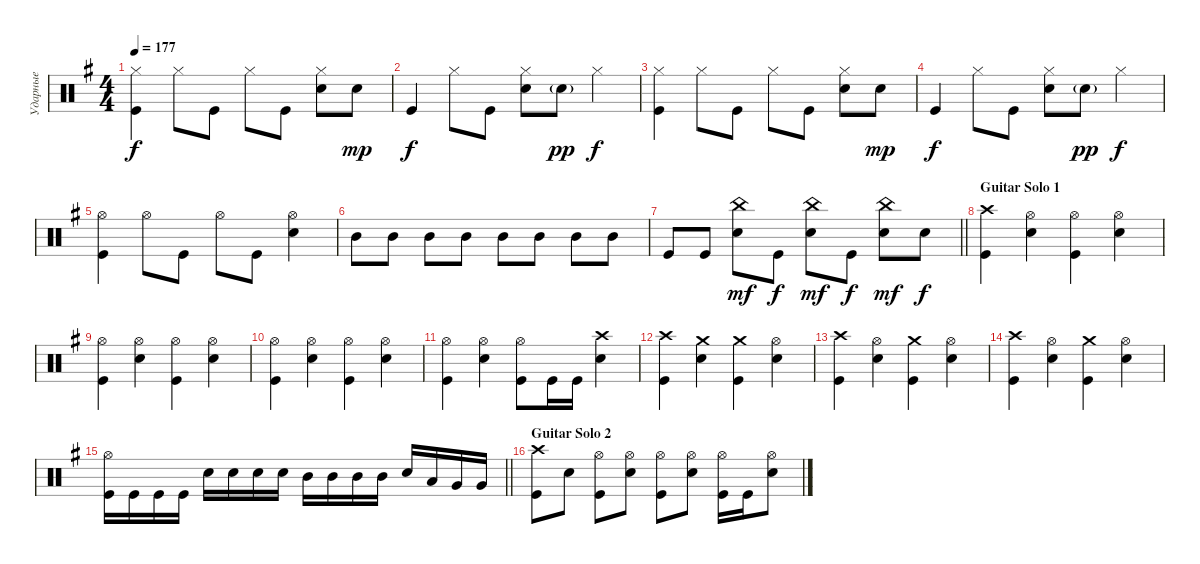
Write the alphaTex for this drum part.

\track ("Ударные" "Ударные") {instrument percussion}
\staff {score}
\articulation defaults
\ts (4 4)
\tempo 177
\clef neutral
\ks eminor
("Kick (hit)" "Hi-Hat (closed)").4{dy f} "Hi-Hat (closed)".8 "Kick (hit)".8 "Hi-Hat (closed)".8 "Kick (hit)".8 ("Snare (hit) 2" "Hi-Hat (closed)").8 "Snare (hit) 2".8{dy mp} |
"Kick (hit)".4{dy f} "Hi-Hat (closed)".8 "Kick (hit)".8 ("Snare (hit) 2" "Hi-Hat (closed)").8 "Snare (hit) 2"{g}.8{dy pp} "Hi-Hat (closed)".4{dy f} |
("Kick (hit)" "Hi-Hat (closed)").4 "Hi-Hat (closed)".8 "Kick (hit)".8 "Hi-Hat (closed)".8 "Kick (hit)".8 ("Snare (hit) 2" "Hi-Hat (closed)").8 "Snare (hit) 2".8{dy mp} |
"Kick (hit)".4{dy f} "Hi-Hat (closed)".8 "Kick (hit)".8 ("Snare (hit) 2" "Hi-Hat (closed)").8 "Snare (hit) 2"{g}.8{dy pp} "Hi-Hat (closed)".4{dy f} |
("Kick (hit)" "Hi-Hat (open)").4 "Hi-Hat (open)".8 "Kick (hit)".8 "Hi-Hat (open)".8 "Kick (hit)".8 ("Snare (hit) 2" "Hi-Hat (open)").4 |
"Mid Tom (hit)".8 "Mid Tom (hit)".8 "Mid Tom (hit)".8 "Mid Tom (hit)".8 "Mid Tom (hit)".8 "Mid Tom (hit)".8 "Mid Tom (hit)".8 "Mid Tom (hit)".8 |
\barLineRight lightlight "Kick (hit)".8 "Kick (hit)".8
("Snare (hit) 2" "China (hit)").8{dy mf} "Kick (hit)".8{dy f} ("Snare (hit) 2" "China (hit)").8{dy mf} "Kick (hit)".8{dy f} ("Snare (hit) 2" "China (hit)").8{dy mf} "Snare (hit) 2".8{dy f} |
\section ("" "Guitar Solo 1")
("Kick (hit)" "Crash high (hit)").4 ("Snare (hit) 2" "Hi-Hat (open)").4 ("Kick (hit)" "Hi-Hat (open)").4 ("Snare (hit) 2" "Hi-Hat (open)").4 |
("Kick (hit)" "Hi-Hat (open)").4 ("Snare (hit) 2" "Hi-Hat (open)").4 ("Kick (hit)" "Hi-Hat (open)").4 ("Snare (hit) 2" "Hi-Hat (open)").4 |
("Kick (hit)" "Hi-Hat (open)").4 ("Snare (hit) 2" "Hi-Hat (open)").4 ("Kick (hit)" "Hi-Hat (open)").4 ("Snare (hit) 2" "Hi-Hat (open)").4 |
("Kick (hit)" "Hi-Hat (open)").4 ("Snare (hit) 2" "Hi-Hat (open)").4 ("Kick (hit)" "Hi-Hat (open)").8 "Kick (hit)".16 "Kick (hit)".16 ("Snare (hit) 2" "Crash high (hit)").4 |
("Kick (hit)" "Crash high (hit)").4 ("Snare (hit) 2" "Crash medium (hit)").4 ("Kick (hit)" "Crash medium (hit)").4 ("Snare (hit) 2" "Hi-Hat (open)").4 |
("Kick (hit)" "Crash high (hit)").4 ("Snare (hit) 2" "Hi-Hat (open)").4 ("Kick (hit)" "Crash medium (hit)").4 ("Snare (hit) 2" "Hi-Hat (open)").4 |
("Kick (hit)" "Crash high (hit)").4 ("Snare (hit) 2" "Hi-Hat (open)").4 ("Kick (hit)" "Crash medium (hit)").4 ("Snare (hit) 2" "Hi-Hat (open)").4 |
\barLineRight lightlight
("Kick (hit)" "Hi-Hat (open)").16 "Kick (hit)".16 "Kick (hit)".16 "Kick (hit)".16 "Snare (hit) 2".16 "Snare (hit) 2".16 "Snare (hit) 2".16 "Snare (hit) 2".16 "Mid Tom (hit)".16 "Mid Tom (hit)".16 "Mid Tom (hit)".16 "Mid Tom (hit)".16 "Snare (hit) 2".16 "Low Tom (hit)".16 "Very Low Tom (hit)".16 "Very Low Tom (hit)".16 |
\section ("" "Guitar Solo 2")
("Kick (hit)" "Crash high (hit)").8 "Snare (hit) 2".8 ("Kick (hit)" "Hi-Hat (open)").8 ("Snare (hit) 2" "Hi-Hat (open)").8 ("Kick (hit)" "Hi-Hat (open)").8 ("Snare (hit) 2" "Hi-Hat (open)").8 ("Kick (hit)" "Hi-Hat (open)").16 "Kick (hit)".16 ("Snare (hit) 2" "Hi-Hat (open)").8
